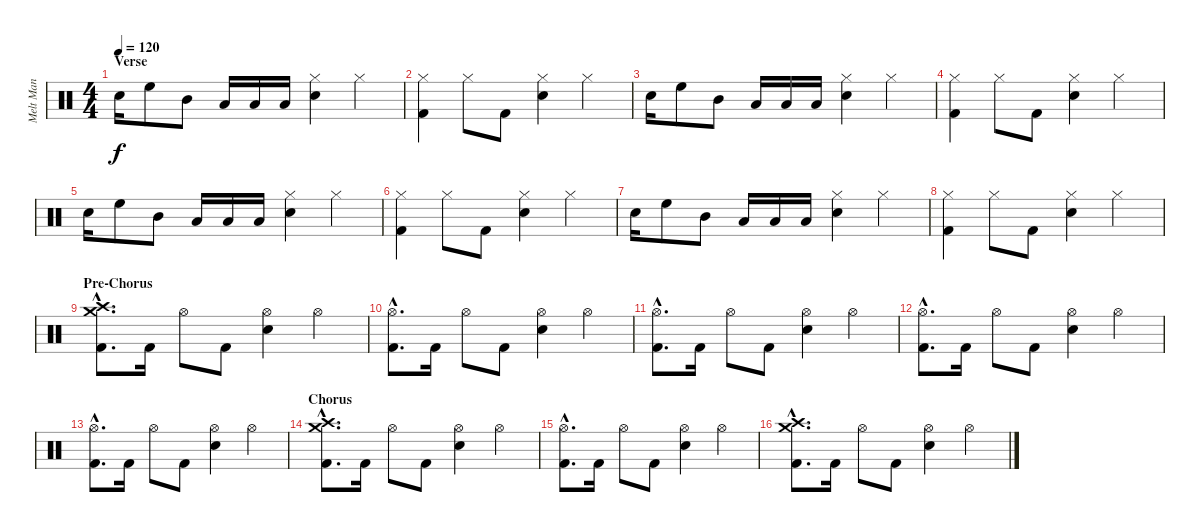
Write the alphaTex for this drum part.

\track ("Melt Man" "Melt Man") {instrument percussion}
\staff {score}
\articulation defaults
\ts (4 4)
\section ("" "Verse")
\tempo 120
\clef neutral
\ks c "Snare (hit) 2".16{dy f volume 16} "High Floor Tom (hit)".8 "Mid Tom (hit)".8 "Low Tom (hit)".16 "Low Tom (hit)".16 "Low Tom (hit)".16
("Hi-Hat (closed)" "Snare (hit) 2").4 "Hi-Hat (closed)".4 |
("Hi-Hat (closed)" "Kick (hit) 2").4 "Hi-Hat (closed)".8 "Kick (hit) 2".8 ("Hi-Hat (closed)" "Snare (hit) 2").4 "Hi-Hat (closed)".4 |
"Snare (hit) 2".16 "High Floor Tom (hit)".8 "Mid Tom (hit)".8 "Low Tom (hit)".16 "Low Tom (hit)".16 "Low Tom (hit)".16 ("Hi-Hat (closed)" "Snare (hit) 2").4 "Hi-Hat (closed)".4 |
("Hi-Hat (closed)" "Kick (hit) 2").4 "Hi-Hat (closed)".8 "Kick (hit) 2".8 ("Hi-Hat (closed)" "Snare (hit) 2").4 "Hi-Hat (closed)".4 |
"Snare (hit) 2".16 "High Floor Tom (hit)".8 "Mid Tom (hit)".8 "Low Tom (hit)".16 "Low Tom (hit)".16 "Low Tom (hit)".16 ("Hi-Hat (closed)" "Snare (hit) 2").4 "Hi-Hat (closed)".4 |
("Hi-Hat (closed)" "Kick (hit) 2").4 "Hi-Hat (closed)".8 "Kick (hit) 2".8 ("Hi-Hat (closed)" "Snare (hit) 2").4 "Hi-Hat (closed)".4 |
"Snare (hit) 2".16 "High Floor Tom (hit)".8 "Mid Tom (hit)".8 "Low Tom (hit)".16 "Low Tom (hit)".16 "Low Tom (hit)".16 ("Hi-Hat (closed)" "Snare (hit) 2").4 "Hi-Hat (closed)".4 |
("Hi-Hat (closed)" "Kick (hit) 2").4 "Hi-Hat (closed)".8 "Kick (hit) 2".8 ("Hi-Hat (closed)" "Snare (hit) 2").4 "Hi-Hat (closed)".4 |
\section ("" "Pre-Chorus")
("Crash medium (hit)"{hac} "Crash high (hit)"{hac} "Kick (hit) 2"{hac}).8{d volume 13} "Kick (hit) 2".16 "Hi-Hat (open)".8 "Kick (hit) 2".8 ("Hi-Hat (open)" "Snare (hit) 2").4 "Hi-Hat (open)".4 |
("Hi-Hat (open)"{hac} "Kick (hit) 2"{hac}).8{d} "Kick (hit) 2".16 "Hi-Hat (open)".8 "Kick (hit) 2".8 ("Hi-Hat (open)" "Snare (hit) 2").4 "Hi-Hat (open)".4 |
("Hi-Hat (open)"{hac} "Kick (hit) 2"{hac}).8{d} "Kick (hit) 2".16 "Hi-Hat (open)".8 "Kick (hit) 2".8 ("Hi-Hat (open)" "Snare (hit) 2").4 "Hi-Hat (open)".4 |
("Hi-Hat (open)"{hac} "Kick (hit) 2"{hac}).8{d} "Kick (hit) 2".16 "Hi-Hat (open)".8 "Kick (hit) 2".8 ("Hi-Hat (open)" "Snare (hit) 2").4 "Hi-Hat (open)".4 |
("Hi-Hat (open)"{hac} "Kick (hit) 2"{hac}).8{d} "Kick (hit) 2".16 "Hi-Hat (open)".8 "Kick (hit) 2".8 ("Hi-Hat (open)" "Snare (hit) 2").4 "Hi-Hat (open)".4 |
\section ("" "Chorus")
("Crash medium (hit)"{hac} "Crash high (hit)"{hac} "Kick (hit) 2"{hac}).8{d} "Kick (hit) 2".16 "Hi-Hat (open)".8 "Kick (hit) 2".8 ("Hi-Hat (open)" "Snare (hit) 2").4 "Hi-Hat (open)".4 |
("Hi-Hat (open)"{hac} "Kick (hit) 2"{hac}).8{d} "Kick (hit) 2".16 "Hi-Hat (open)".8 "Kick (hit) 2".8 ("Hi-Hat (open)" "Snare (hit) 2").4 "Hi-Hat (open)".4 |
("Crash medium (hit)"{hac} "Crash high (hit)"{hac} "Kick (hit) 2"{hac}).8{d} "Kick (hit) 2".16 "Hi-Hat (open)".8 "Kick (hit) 2".8 ("Hi-Hat (open)" "Snare (hit) 2").4 "Hi-Hat (open)".4
